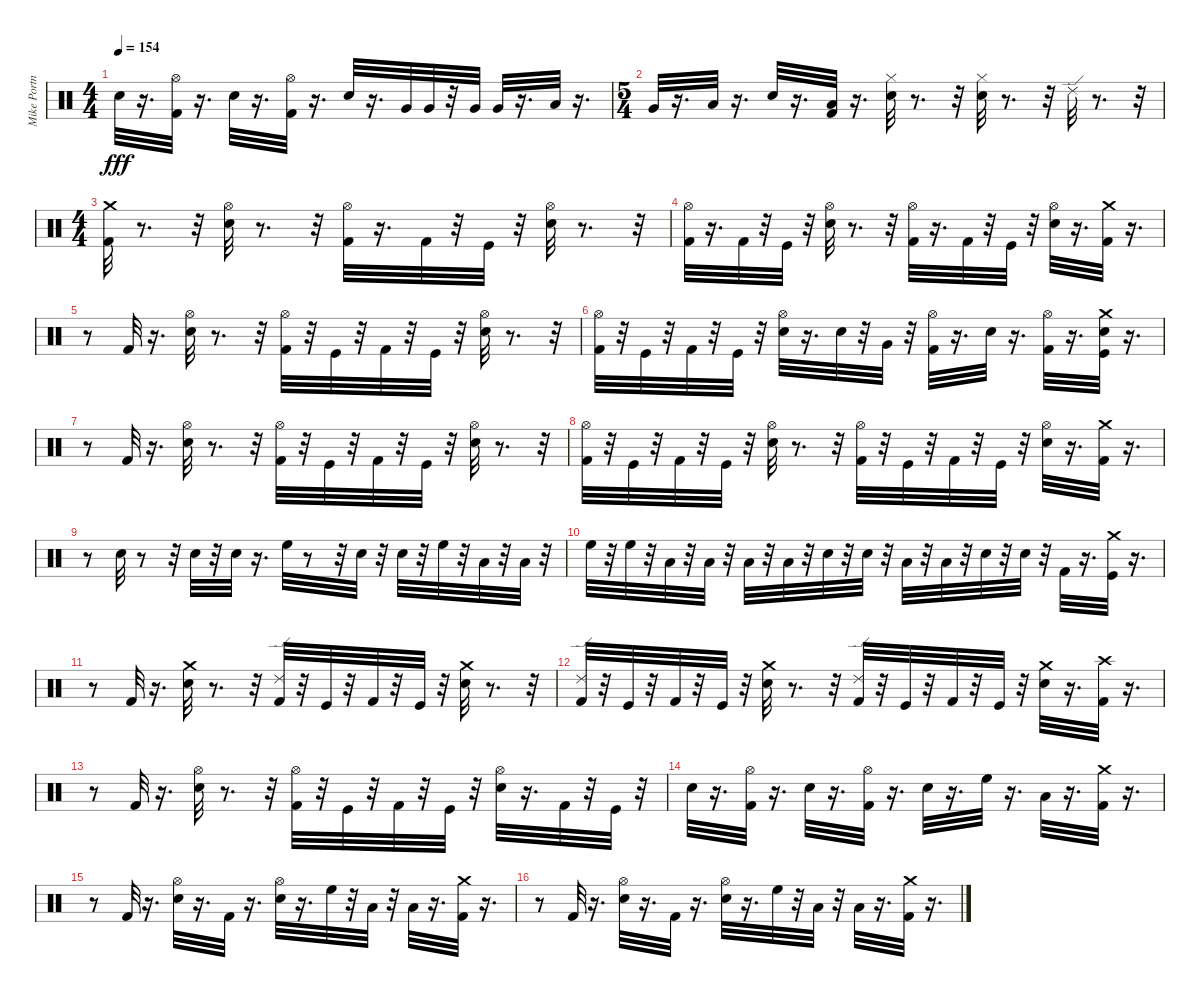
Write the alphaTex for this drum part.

\track ("Mike Portnoy" "Mike Portn") {instrument percussion}
\staff {score}
\articulation defaults
\ts (4 4)
\tempo 154
\clef neutral
\ks c "Snare (hit) 2".32{dy fff}
r.16{d} ("Kick (hit) 2" "Hi-Hat (open)").32 r.16{d} "Snare (hit) 2".32 r.16{d} ("Hi-Hat (open)" "Kick (hit) 2").32 r.16{d} "Snare (hit) 2".32 r.16{d} "Very Low Tom (hit)".32 "Very Low Tom (hit)".32 r.32 "Very Low Tom (hit)".32 "Very Low Tom (hit)".32 r.16{d} "Low Floor Tom (hit)".32 r.16{d} |
\ts (5 4)
"Very Low Tom (hit)".32 r.16{d} "Low Floor Tom (hit)".32 r.16{d} "Snare (hit) 2".32 r.16{d} ("Kick (hit) 2" "Low Floor Tom (hit)").32 r.16{d} ("Hi-Hat (closed)" "Snare (hit) 2").32 r.8{d} r.32 ("Hi-Hat (closed)" "Snare (hit) 2").32 r.8{d} r.32 "Ride (edge) 2".32 r.8{d} r.32 |
\ts (4 4)
("Kick (hit) 2" "Crash medium (hit)").32 r.8{d} r.32 ("Snare (hit) 2" "Hi-Hat (open)").32 r.8{d} r.32 ("Kick (hit) 2" "Hi-Hat (open)").32 r.16{d} "Kick (hit) 2".32 r.32 "Kick (hit)".32 r.32 ("Snare (hit) 2" "Hi-Hat (open)").32 r.8{d} r.32 |
("Kick (hit) 2" "Hi-Hat (open)").32 r.16{d} "Kick (hit) 2".32 r.32 "Kick (hit)".32 r.32 ("Snare (hit) 2" "Hi-Hat (open)").32 r.8{d} r.32 ("Kick (hit) 2" "Hi-Hat (open)").32 r.16{d} "Kick (hit) 2".32 r.32 "Kick (hit)".32 r.32 ("Snare (hit) 2" "Hi-Hat (open)").32 r.16{d} ("Kick (hit) 2" "Crash medium (hit)").32 r.16{d} |
r.8 "Kick (hit) 2".32 r.16{d} ("Snare (hit) 2" "Hi-Hat (open)").32 r.8{d} r.32 ("Kick (hit) 2" "Hi-Hat (open)").32 r.32 "Kick (hit)".32 r.32 "Kick (hit) 2".32 r.32 "Kick (hit)".32 r.32 ("Snare (hit) 2" "Hi-Hat (open)").32 r.8{d} r.32 |
("Kick (hit) 2" "Hi-Hat (open)").32 r.32 "Kick (hit)".32 r.32 "Kick (hit) 2".32 r.32 "Kick (hit)".32 r.32 ("Snare (hit) 2" "Hi-Hat (open)").32 r.16{d} "Snare (hit) 2".32 r.32 "Very Low Tom (hit)".32 r.32 ("Kick (hit) 2" "Hi-Hat (open)").32 r.16{d} "Snare (hit) 2".32 r.16{d} ("Kick (hit) 2" "Hi-Hat (open)").32 r.16{d} ("Snare (hit) 2" "Kick (hit)" "Crash medium (hit)").32 r.16{d} |
r.8 "Kick (hit) 2".32 r.16{d} ("Snare (hit) 2" "Hi-Hat (open)").32 r.8{d} r.32 ("Kick (hit) 2" "Hi-Hat (open)").32 r.32 "Kick (hit)".32 r.32 "Kick (hit) 2".32 r.32 "Kick (hit)".32 r.32 ("Snare (hit) 2" "Hi-Hat (open)").32 r.8{d} r.32 |
("Kick (hit) 2" "Hi-Hat (open)").32 r.32 "Kick (hit)".32 r.32 "Kick (hit) 2".32 r.32 "Kick (hit)".32 r.32 ("Snare (hit) 2" "Hi-Hat (open)").32 r.8{d} r.32 ("Kick (hit) 2" "Hi-Hat (open)").32 r.32 "Kick (hit)".32 r.32 "Kick (hit) 2".32 r.32 "Kick (hit)".32 r.32 ("Snare (hit) 2" "Hi-Hat (open)").32 r.16{d} ("Kick (hit) 2" "Crash medium (hit)").32 r.16{d} |
r.8 "Snare (hit) 2".32 r.8 r.32 "Snare (hit) 2".32 r.32 "Snare (hit) 2".32 r.16{d} "High Floor Tom (hit)".32 r.8 r.32 "Snare (hit) 2".32 r.32 "Snare (hit) 2".32 r.32 "High Floor Tom (hit)".32 r.32 "Low Tom (hit)".32 r.32 "Low Tom (hit)".32 r.32 |
"High Floor Tom (hit)".32 r.32 "High Floor Tom (hit)".32 r.32 "Low Tom (hit)".32 r.32 "Low Tom (hit)".32 r.32 "Low Floor Tom (hit)".32 r.32 "Low Floor Tom (hit)".32 r.32 "Snare (hit) 2".32 r.32 "Snare (hit) 2".32 r.32 "Low Floor Tom (hit)".32 r.32 "Low Floor Tom (hit)".32 r.32 "Snare (hit) 2".32 r.32 "Snare (hit) 2".32 r.32 "Kick (hit) 2".32 r.16{d} ("Crash medium (hit)" "Kick (hit)").32 r.16{d} |
r.8 "Kick (hit) 2".32 r.16{d} ("Crash medium (hit)" "Snare (hit) 2").32 r.8{d} r.32 ("Ride (edge) 2" "Kick (hit) 2").32 r.32 "Kick (hit)".32 r.32 "Kick (hit) 2".32 r.32 "Kick (hit)".32 r.32 ("Crash medium (hit)" "Snare (hit) 2").32 r.8{d} r.32 |
("Kick (hit) 2" "Ride (edge) 2").32 r.32 "Kick (hit)".32 r.32 "Kick (hit) 2".32 r.32 "Kick (hit)".32 r.32 ("Snare (hit) 2" "Crash medium (hit)").32 r.8{d} r.32 ("Kick (hit) 2" "Ride (edge) 2").32 r.32 "Kick (hit)".32 r.32 "Kick (hit) 2".32 r.32 "Kick (hit)".32 r.32 ("Snare (hit) 2" "Crash medium (hit)").32 r.16{d} ("Kick (hit) 2" "Crash high (hit)").32 r.16{d} |
r.8 "Kick (hit) 2".32 r.16{d} ("Snare (hit) 2" "Hi-Hat (open)").32 r.8{d} r.32 ("Kick (hit) 2" "Hi-Hat (open)").32 r.32 "Kick (hit)".32 r.32 "Kick (hit) 2".32 r.32 "Kick (hit)".32 r.32 ("Snare (hit) 2" "Hi-Hat (open)").32 r.16{d} "Kick (hit) 2".32 r.32 "Kick (hit)".32 r.32 |
"Snare (hit) 2".32 r.16{d} ("Kick (hit) 2" "Hi-Hat (open)").32 r.16{d} "Snare (hit) 2".32 r.16{d} ("Kick (hit) 2" "Hi-Hat (open)").32 r.16{d} "Snare (hit) 2".32 r.16{d} "High Floor Tom (hit)".32 r.16{d} "Low Tom (hit)".32 r.16{d} ("Kick (hit) 2" "Crash medium (hit)").32 r.16{d} |
r.8 "Kick (hit) 2".32 r.16{d} ("Snare (hit) 2" "Hi-Hat (open)").32 r.16{d} "Kick (hit) 2".32 r.16{d} ("Snare (hit) 2" "Hi-Hat (open)").32 r.16{d} "High Floor Tom (hit)".32 r.32 "Low Tom (hit)".32 r.32 "Low Floor Tom (hit)".32 r.16{d} ("Crash medium (hit)" "Kick (hit) 2").32 r.16{d} |
r.8 "Kick (hit) 2".32 r.16{d} ("Hi-Hat (open)" "Snare (hit) 2").32 r.16{d} "Kick (hit) 2".32 r.16{d} ("Snare (hit) 2" "Hi-Hat (open)").32 r.16{d} "High Floor Tom (hit)".32 r.32 "Low Tom (hit)".32 r.32 "Low Floor Tom (hit)".32 r.16{d} ("Crash medium (hit)" "Kick (hit) 2").32 r.16{d}
